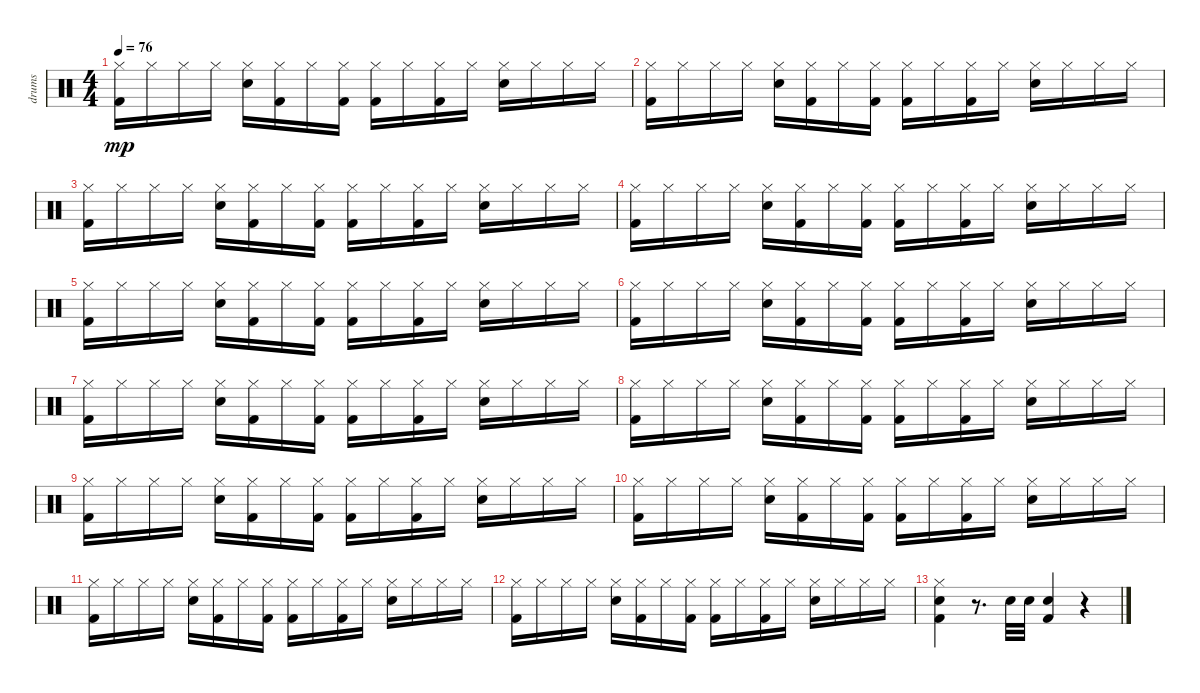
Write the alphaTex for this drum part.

\track ("drums" "drums") {instrument percussion}
\staff {score}
\articulation defaults
\ts (4 4)
\tempo 76
\clef neutral
\ks c
("Hi-Hat (closed)" "Kick (hit) 2").16{dy mp} "Hi-Hat (closed)".16 "Hi-Hat (closed)".16 "Hi-Hat (closed)".16 ("Hi-Hat (closed)" "Snare (hit) 2").16 ("Hi-Hat (closed)" "Kick (hit) 2").16 "Hi-Hat (closed)".16 ("Hi-Hat (closed)" "Kick (hit) 2").16 ("Hi-Hat (closed)" "Kick (hit) 2").16 "Hi-Hat (closed)".16 ("Hi-Hat (closed)" "Kick (hit) 2").16 "Hi-Hat (closed)".16 ("Snare (hit) 2" "Hi-Hat (closed)").16 "Hi-Hat (closed)".16 "Hi-Hat (closed)".16 "Hi-Hat (closed)".16 |
("Hi-Hat (closed)" "Kick (hit) 2").16 "Hi-Hat (closed)".16 "Hi-Hat (closed)".16 "Hi-Hat (closed)".16 ("Hi-Hat (closed)" "Snare (hit) 2").16 ("Hi-Hat (closed)" "Kick (hit) 2").16 "Hi-Hat (closed)".16 ("Hi-Hat (closed)" "Kick (hit) 2").16 ("Hi-Hat (closed)" "Kick (hit) 2").16 "Hi-Hat (closed)".16 ("Hi-Hat (closed)" "Kick (hit) 2").16 "Hi-Hat (closed)".16 ("Snare (hit) 2" "Hi-Hat (closed)").16 "Hi-Hat (closed)".16 "Hi-Hat (closed)".16 "Hi-Hat (closed)".16 |
("Hi-Hat (closed)" "Kick (hit) 2").16 "Hi-Hat (closed)".16 "Hi-Hat (closed)".16 "Hi-Hat (closed)".16 ("Hi-Hat (closed)" "Snare (hit) 2").16 ("Hi-Hat (closed)" "Kick (hit) 2").16 "Hi-Hat (closed)".16 ("Hi-Hat (closed)" "Kick (hit) 2").16 ("Hi-Hat (closed)" "Kick (hit) 2").16 "Hi-Hat (closed)".16 ("Hi-Hat (closed)" "Kick (hit) 2").16 "Hi-Hat (closed)".16 ("Snare (hit) 2" "Hi-Hat (closed)").16 "Hi-Hat (closed)".16 "Hi-Hat (closed)".16 "Hi-Hat (closed)".16 |
("Hi-Hat (closed)" "Kick (hit) 2").16 "Hi-Hat (closed)".16 "Hi-Hat (closed)".16 "Hi-Hat (closed)".16 ("Hi-Hat (closed)" "Snare (hit) 2").16 ("Hi-Hat (closed)" "Kick (hit) 2").16 "Hi-Hat (closed)".16 ("Hi-Hat (closed)" "Kick (hit) 2").16 ("Hi-Hat (closed)" "Kick (hit) 2").16 "Hi-Hat (closed)".16 ("Hi-Hat (closed)" "Kick (hit) 2").16 "Hi-Hat (closed)".16 ("Snare (hit) 2" "Hi-Hat (closed)").16 "Hi-Hat (closed)".16 "Hi-Hat (closed)".16 "Hi-Hat (closed)".16 |
("Hi-Hat (closed)" "Kick (hit) 2").16 "Hi-Hat (closed)".16 "Hi-Hat (closed)".16 "Hi-Hat (closed)".16 ("Hi-Hat (closed)" "Snare (hit) 2").16 ("Hi-Hat (closed)" "Kick (hit) 2").16 "Hi-Hat (closed)".16 ("Hi-Hat (closed)" "Kick (hit) 2").16 ("Hi-Hat (closed)" "Kick (hit) 2").16 "Hi-Hat (closed)".16 ("Hi-Hat (closed)" "Kick (hit) 2").16 "Hi-Hat (closed)".16 ("Snare (hit) 2" "Hi-Hat (closed)").16 "Hi-Hat (closed)".16 "Hi-Hat (closed)".16 "Hi-Hat (closed)".16 |
("Hi-Hat (closed)" "Kick (hit) 2").16 "Hi-Hat (closed)".16 "Hi-Hat (closed)".16 "Hi-Hat (closed)".16 ("Hi-Hat (closed)" "Snare (hit) 2").16 ("Hi-Hat (closed)" "Kick (hit) 2").16 "Hi-Hat (closed)".16 ("Hi-Hat (closed)" "Kick (hit) 2").16 ("Hi-Hat (closed)" "Kick (hit) 2").16 "Hi-Hat (closed)".16 ("Hi-Hat (closed)" "Kick (hit) 2").16 "Hi-Hat (closed)".16 ("Snare (hit) 2" "Hi-Hat (closed)").16 "Hi-Hat (closed)".16 "Hi-Hat (closed)".16 "Hi-Hat (closed)".16 |
("Hi-Hat (closed)" "Kick (hit) 2").16 "Hi-Hat (closed)".16 "Hi-Hat (closed)".16 "Hi-Hat (closed)".16 ("Hi-Hat (closed)" "Snare (hit) 2").16 ("Hi-Hat (closed)" "Kick (hit) 2").16 "Hi-Hat (closed)".16 ("Hi-Hat (closed)" "Kick (hit) 2").16 ("Hi-Hat (closed)" "Kick (hit) 2").16 "Hi-Hat (closed)".16 ("Hi-Hat (closed)" "Kick (hit) 2").16 "Hi-Hat (closed)".16 ("Snare (hit) 2" "Hi-Hat (closed)").16 "Hi-Hat (closed)".16 "Hi-Hat (closed)".16 "Hi-Hat (closed)".16 |
("Hi-Hat (closed)" "Kick (hit) 2").16 "Hi-Hat (closed)".16 "Hi-Hat (closed)".16 "Hi-Hat (closed)".16 ("Hi-Hat (closed)" "Snare (hit) 2").16 ("Hi-Hat (closed)" "Kick (hit) 2").16 "Hi-Hat (closed)".16 ("Hi-Hat (closed)" "Kick (hit) 2").16 ("Hi-Hat (closed)" "Kick (hit) 2").16 "Hi-Hat (closed)".16 ("Hi-Hat (closed)" "Kick (hit) 2").16 "Hi-Hat (closed)".16 ("Snare (hit) 2" "Hi-Hat (closed)").16 "Hi-Hat (closed)".16 "Hi-Hat (closed)".16 "Hi-Hat (closed)".16 |
("Hi-Hat (closed)" "Kick (hit) 2").16 "Hi-Hat (closed)".16 "Hi-Hat (closed)".16 "Hi-Hat (closed)".16 ("Hi-Hat (closed)" "Snare (hit) 2").16 ("Hi-Hat (closed)" "Kick (hit) 2").16 "Hi-Hat (closed)".16 ("Hi-Hat (closed)" "Kick (hit) 2").16 ("Hi-Hat (closed)" "Kick (hit) 2").16 "Hi-Hat (closed)".16 ("Hi-Hat (closed)" "Kick (hit) 2").16 "Hi-Hat (closed)".16 ("Snare (hit) 2" "Hi-Hat (closed)").16 "Hi-Hat (closed)".16 "Hi-Hat (closed)".16 "Hi-Hat (closed)".16 |
("Hi-Hat (closed)" "Kick (hit) 2").16 "Hi-Hat (closed)".16 "Hi-Hat (closed)".16 "Hi-Hat (closed)".16 ("Hi-Hat (closed)" "Snare (hit) 2").16 ("Hi-Hat (closed)" "Kick (hit) 2").16 "Hi-Hat (closed)".16 ("Hi-Hat (closed)" "Kick (hit) 2").16 ("Hi-Hat (closed)" "Kick (hit) 2").16 "Hi-Hat (closed)".16 ("Hi-Hat (closed)" "Kick (hit) 2").16 "Hi-Hat (closed)".16 ("Snare (hit) 2" "Hi-Hat (closed)").16 "Hi-Hat (closed)".16 "Hi-Hat (closed)".16 "Hi-Hat (closed)".16 |
("Hi-Hat (closed)" "Kick (hit) 2").16 "Hi-Hat (closed)".16{volume 16} "Hi-Hat (closed)".16 "Hi-Hat (closed)".16 ("Hi-Hat (closed)" "Snare (hit) 2").16{volume 16} ("Hi-Hat (closed)" "Kick (hit) 2").16{volume 15} "Hi-Hat (closed)".16{volume 14} ("Hi-Hat (closed)" "Kick (hit) 2").16{volume 14} ("Hi-Hat (closed)" "Kick (hit) 2").16{volume 13} "Hi-Hat (closed)".16{volume 13} ("Hi-Hat (closed)" "Kick (hit) 2").16{volume 12} "Hi-Hat (closed)".16{volume 12} ("Snare (hit) 2" "Hi-Hat (closed)").16 "Hi-Hat (closed)".16{volume 12} "Hi-Hat (closed)".16 "Hi-Hat (closed)".16{volume 11} |
("Hi-Hat (closed)" "Kick (hit) 2").16{volume 11} "Hi-Hat (closed)".16{volume 11} "Hi-Hat (closed)".16{volume 11} "Hi-Hat (closed)".16{volume 10} ("Hi-Hat (closed)" "Snare (hit) 2").16{volume 10} ("Hi-Hat (closed)" "Kick (hit) 2").16{volume 10} "Hi-Hat (closed)".16{volume 9} ("Hi-Hat (closed)" "Kick (hit) 2").16{volume 9} ("Hi-Hat (closed)" "Kick (hit) 2").16{volume 8} "Hi-Hat (closed)".16{volume 8} ("Hi-Hat (closed)" "Kick (hit) 2").16{volume 7} "Hi-Hat (closed)".16{volume 7} ("Snare (hit) 2" "Hi-Hat (closed)").16{volume 6} "Hi-Hat (closed)".16 "Hi-Hat (closed)".16{volume 6} "Hi-Hat (closed)".16{volume 6} |
("Hi-Hat (closed)" "Kick (hit) 2" "Snare (hit) 2").4{volume 6} r.8{d} "Snare (hit) 2".32{volume 4} "Snare (hit) 2".32 ("Kick (hit) 2" "Snare (hit) 2").4{volume 3} r.4
